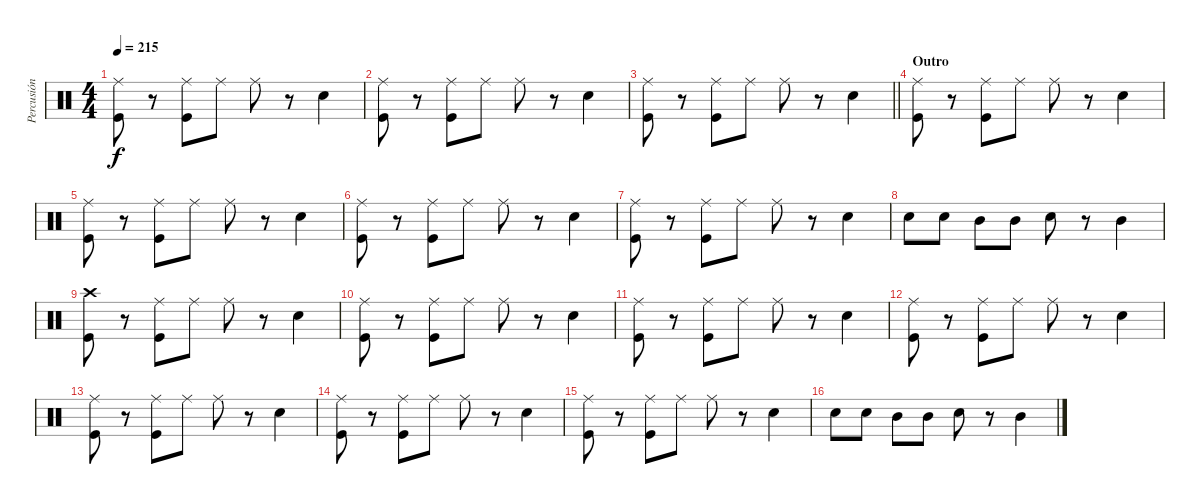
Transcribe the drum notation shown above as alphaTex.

\track ("Percusión" "Percusión") {instrument percussion}
\staff {score}
\articulation defaults
\ts (4 4)
\tempo 215
\clef neutral
\ks c
("Ride (middle)" "Kick (hit)").8{dy f} r.8 ("Ride (middle)" "Kick (hit)").8 "Ride (middle)".8 "Ride (middle)".8 r.8 "Snare (hit) 2".4 |
("Ride (middle)" "Kick (hit)").8 r.8 ("Ride (middle)" "Kick (hit)").8 "Ride (middle)".8 "Ride (middle)".8 r.8 "Snare (hit) 2".4 |
\barLineRight lightlight
("Ride (middle)" "Kick (hit)").8 r.8 ("Ride (middle)" "Kick (hit)").8 "Ride (middle)".8 "Ride (middle)".8 r.8 "Snare (hit) 2".4 |
\section ("" "Outro")
("Ride (middle)" "Kick (hit)").8 r.8 ("Ride (middle)" "Kick (hit)").8 "Ride (middle)".8 "Ride (middle)".8 r.8 "Snare (hit) 2".4 |
("Ride (middle)" "Kick (hit)").8 r.8 ("Ride (middle)" "Kick (hit)").8 "Ride (middle)".8 "Ride (middle)".8 r.8 "Snare (hit) 2".4 |
("Ride (middle)" "Kick (hit)").8 r.8 ("Ride (middle)" "Kick (hit)").8 "Ride (middle)".8 "Ride (middle)".8 r.8 "Snare (hit) 2".4 |
("Ride (middle)" "Kick (hit)").8 r.8 ("Ride (middle)" "Kick (hit)").8 "Ride (middle)".8 "Ride (middle)".8 r.8 "Snare (hit) 2".4 |
"Snare (hit) 2".8 "Snare (hit) 2".8 "Mid Tom (hit)".8 "Mid Tom (hit)".8 "Snare (hit) 2".8 r.8 "Mid Tom (hit)".4 |
("Crash high (hit)" "Kick (hit)").8 r.8 ("Ride (middle)" "Kick (hit)").8 "Ride (middle)".8 "Ride (middle)".8 r.8 "Snare (hit) 2".4 |
("Ride (middle)" "Kick (hit)").8 r.8 ("Ride (middle)" "Kick (hit)").8 "Ride (middle)".8 "Ride (middle)".8 r.8 "Snare (hit) 2".4 |
("Ride (middle)" "Kick (hit)").8 r.8 ("Ride (middle)" "Kick (hit)").8 "Ride (middle)".8 "Ride (middle)".8 r.8 "Snare (hit) 2".4 |
("Ride (middle)" "Kick (hit)").8 r.8 ("Ride (middle)" "Kick (hit)").8 "Ride (middle)".8 "Ride (middle)".8 r.8 "Snare (hit) 2".4 |
("Ride (middle)" "Kick (hit)").8 r.8 ("Ride (middle)" "Kick (hit)").8 "Ride (middle)".8 "Ride (middle)".8 r.8 "Snare (hit) 2".4 |
("Ride (middle)" "Kick (hit)").8 r.8 ("Ride (middle)" "Kick (hit)").8 "Ride (middle)".8 "Ride (middle)".8 r.8 "Snare (hit) 2".4 |
("Ride (middle)" "Kick (hit)").8 r.8 ("Ride (middle)" "Kick (hit)").8 "Ride (middle)".8 "Ride (middle)".8 r.8 "Snare (hit) 2".4 |
"Snare (hit) 2".8 "Snare (hit) 2".8 "Mid Tom (hit)".8 "Mid Tom (hit)".8 "Snare (hit) 2".8 r.8 "Mid Tom (hit)".4
